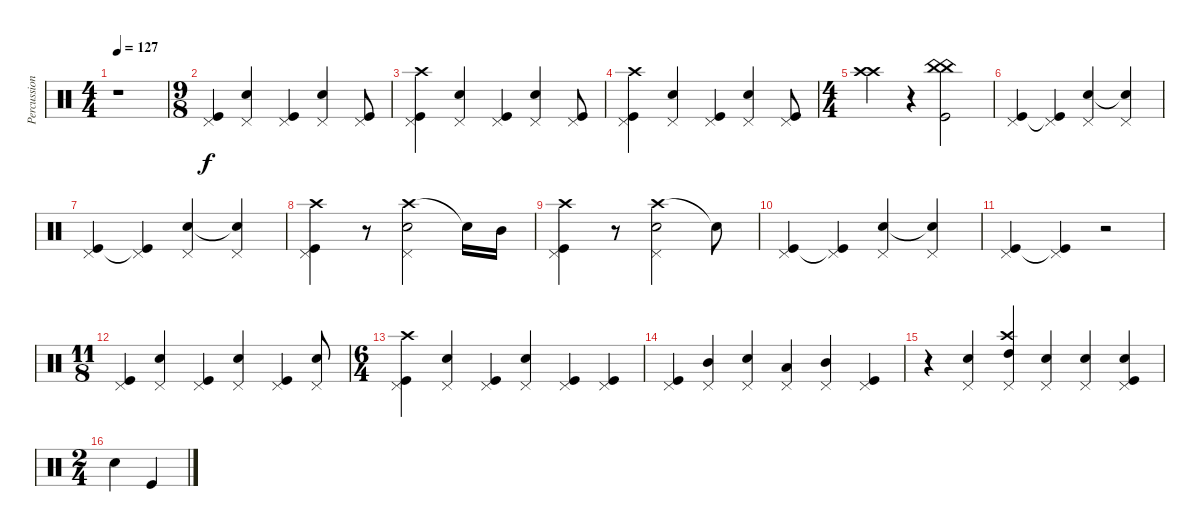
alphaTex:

\track ("Percussion" "Percussion") {instrument percussion}
\staff {score}
\articulation defaults
\ts (4 4)
\tempo 127
\clef neutral
\ks c
r.1{dy f} |
\ts (9 8)
("Pedal Hi-Hat (hit)" "Kick (hit)").4 ("Pedal Hi-Hat (hit)" "Snare (hit) 2").4 ("Pedal Hi-Hat (hit)" "Kick (hit)").4 ("Pedal Hi-Hat (hit)" "Snare (hit) 2").4 ("Pedal Hi-Hat (hit)" "Kick (hit)").8 |
("Crash high (hit)" "Pedal Hi-Hat (hit)" "Kick (hit)").4 ("Pedal Hi-Hat (hit)" "Snare (hit) 2").4 ("Pedal Hi-Hat (hit)" "Kick (hit)").4 ("Pedal Hi-Hat (hit)" "Snare (hit) 2").4 ("Pedal Hi-Hat (hit)" "Kick (hit)").8 |
("Crash high (hit)" "Pedal Hi-Hat (hit)" "Kick (hit)").4 ("Pedal Hi-Hat (hit)" "Snare (hit) 2").4 ("Pedal Hi-Hat (hit)" "Kick (hit)").4 ("Pedal Hi-Hat (hit)" "Snare (hit) 2").4 ("Pedal Hi-Hat (hit)" "Kick (hit)").8 |
\ts (4 4)
("Crash high (hit)" "Crash high (hit)").4 r.4 ("China (hit)" "China (hit)" "Kick (hit)").2 |
("Pedal Hi-Hat (hit)" "Kick (hit)").4 ("Pedal Hi-Hat (hit)" "Kick (hit)"{t}).4 ("Pedal Hi-Hat (hit)" "Snare (hit) 2").4 ("Pedal Hi-Hat (hit)" "Snare (hit) 2"{t}).4 |
("Pedal Hi-Hat (hit)" "Kick (hit)").4 ("Pedal Hi-Hat (hit)" "Kick (hit)"{t}).4 ("Pedal Hi-Hat (hit)" "Snare (hit) 2").4 ("Pedal Hi-Hat (hit)" "Snare (hit) 2"{t}).4 |
("Crash high (hit)" "Pedal Hi-Hat (hit)" "Kick (hit)").4 r.8 ("Crash high (hit)" "Pedal Hi-Hat (hit)" "Snare (hit) 2").2 "Snare (hit) 2"{t}.16 "Mid Tom (hit)".16 |
("Crash high (hit)" "Pedal Hi-Hat (hit)" "Kick (hit)").4 r.8 ("Crash high (hit)" "Pedal Hi-Hat (hit)" "Snare (hit) 2").2 "Snare (hit) 2"{t}.8 |
("Pedal Hi-Hat (hit)" "Kick (hit)").4 ("Pedal Hi-Hat (hit)" "Kick (hit)"{t}).4 ("Pedal Hi-Hat (hit)" "Snare (hit) 2").4 ("Pedal Hi-Hat (hit)" "Snare (hit) 2"{t}).4 |
("Pedal Hi-Hat (hit)" "Kick (hit)").4 ("Pedal Hi-Hat (hit)" "Kick (hit)"{t}).4 r.2 |
\ts (11 8)
("Pedal Hi-Hat (hit)" "Kick (hit)").4 ("Pedal Hi-Hat (hit)" "Snare (hit) 2").4 ("Pedal Hi-Hat (hit)" "Kick (hit)").4 ("Pedal Hi-Hat (hit)" "Snare (hit) 2").4 ("Pedal Hi-Hat (hit)" "Kick (hit)").4 ("Pedal Hi-Hat (hit)" "Snare (hit) 2").8 |
\ts (6 4)
("Crash high (hit)" "Pedal Hi-Hat (hit)" "Kick (hit)").4 ("Pedal Hi-Hat (hit)" "Snare (hit) 2").4 ("Pedal Hi-Hat (hit)" "Kick (hit)").4 ("Pedal Hi-Hat (hit)" "Snare (hit) 2").4 ("Pedal Hi-Hat (hit)" "Kick (hit)").4 ("Pedal Hi-Hat (hit)" "Kick (hit)").4 |
("Pedal Hi-Hat (hit)" "Kick (hit)").4 ("Pedal Hi-Hat (hit)" "Mid Tom (hit)").4 ("Pedal Hi-Hat (hit)" "Snare (hit) 2").4 ("Pedal Hi-Hat (hit)" "Low Tom (hit)").4 ("Pedal Hi-Hat (hit)" "Mid Tom (hit)").4 ("Pedal Hi-Hat (hit)" "Kick (hit)").4 |
r.4 ("Pedal Hi-Hat (hit)" "Snare (hit) 2").4 ("Crash high (hit)" "Pedal Hi-Hat (hit)" "High Tom (hit)").4 ("Pedal Hi-Hat (hit)" "Snare (hit) 2").4 ("Pedal Hi-Hat (hit)" "Snare (hit) 2").4 ("Pedal Hi-Hat (hit)" "Snare (hit) 2" "Kick (hit)").4 |
\ts (2 4)
"Snare (hit) 2".4 "Kick (hit)".4
